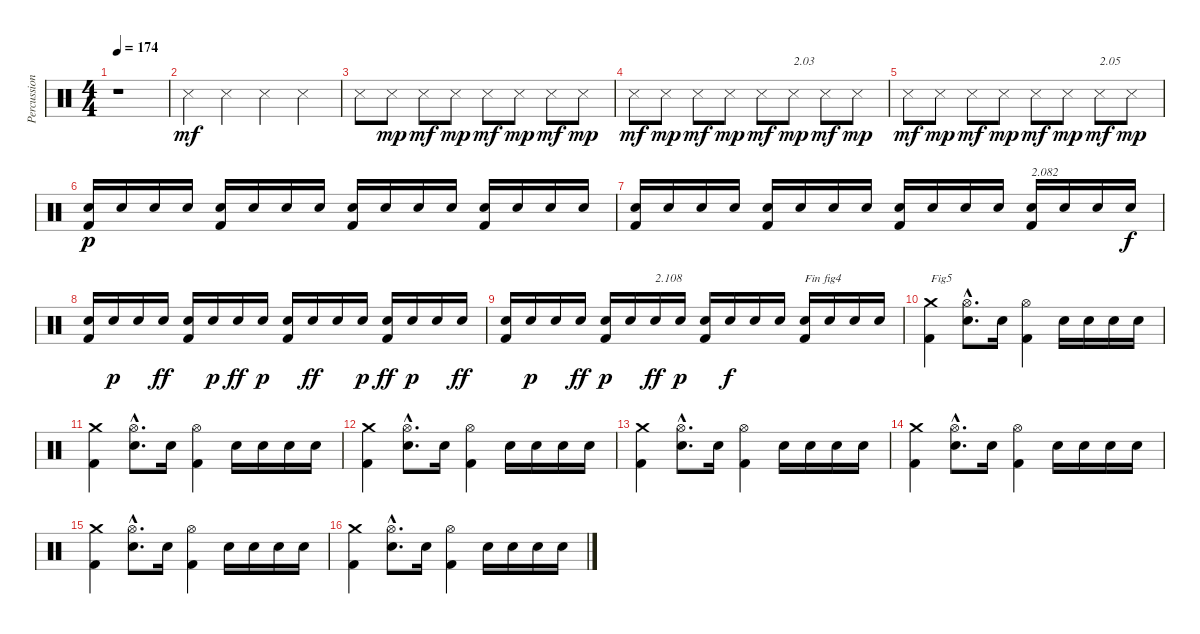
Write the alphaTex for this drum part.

\track ("Percussions" "Percussion") {instrument percussion}
\staff {score}
\articulation defaults
\ts (4 4)
\tempo 174
\clef neutral
\ks c
r.1{dy f} |
"Snare (side stick) 3".4{dy mf} "Snare (side stick) 3".4 "Snare (side stick) 3".4 "Snare (side stick) 3".4 |
"Snare (side stick) 3".8 "Snare (side stick) 3".8{dy mp} "Snare (side stick) 3".8{dy mf} "Snare (side stick) 3".8{dy mp} "Snare (side stick) 3".8{dy mf} "Snare (side stick) 3".8{dy mp} "Snare (side stick) 3".8{dy mf} "Snare (side stick) 3".8{dy mp} |
"Snare (side stick) 3".8{dy mf} "Snare (side stick) 3".8{dy mp} "Snare (side stick) 3".8{dy mf} "Snare (side stick) 3".8{dy mp} "Snare (side stick) 3".8{dy mf} "Snare (side stick) 3".8{txt "2.03" dy mp} "Snare (side stick) 3".8{dy mf} "Snare (side stick) 3".8{dy mp} |
"Snare (side stick) 3".8{dy mf} "Snare (side stick) 3".8{dy mp} "Snare (side stick) 3".8{dy mf} "Snare (side stick) 3".8{dy mp} "Snare (side stick) 3".8{dy mf} "Snare (side stick) 3".8{dy mp} "Snare (side stick) 3".8{txt "2.05" dy mf} "Snare (side stick) 3".8{dy mp} |
("Kick (hit) 2" "Electric Snare (hit)").16{dy p} "Electric Snare (hit)".16 "Electric Snare (hit)".16 "Electric Snare (hit)".16 ("Kick (hit) 2" "Electric Snare (hit)").16 "Electric Snare (hit)".16 "Electric Snare (hit)".16 "Electric Snare (hit)".16 ("Kick (hit) 2" "Electric Snare (hit)").16 "Electric Snare (hit)".16 "Electric Snare (hit)".16 "Electric Snare (hit)".16 ("Kick (hit) 2" "Electric Snare (hit)").16 "Electric Snare (hit)".16 "Electric Snare (hit)".16 "Electric Snare (hit)".16 |
("Kick (hit) 2" "Electric Snare (hit)").16 "Electric Snare (hit)".16 "Electric Snare (hit)".16 "Electric Snare (hit)".16 ("Kick (hit) 2" "Electric Snare (hit)").16 "Electric Snare (hit)".16 "Electric Snare (hit)".16 "Electric Snare (hit)".16 ("Kick (hit) 2" "Electric Snare (hit)").16 "Electric Snare (hit)".16 "Electric Snare (hit)".16 "Electric Snare (hit)".16 ("Kick (hit) 2" "Electric Snare (hit)").16{txt "2.082"} "Electric Snare (hit)".16 "Electric Snare (hit)".16 "Electric Snare (hit)".16{dy f} |
("Kick (hit) 2" "Electric Snare (hit)").16 "Electric Snare (hit)".16{dy p} "Electric Snare (hit)".16 "Electric Snare (hit)".16{dy ff} ("Kick (hit) 2" "Electric Snare (hit)").16 "Electric Snare (hit)".16{dy p} "Electric Snare (hit)".16{dy ff} "Electric Snare (hit)".16{dy p} ("Kick (hit) 2" "Electric Snare (hit)").16 "Electric Snare (hit)".16{dy ff} "Electric Snare (hit)".16 "Electric Snare (hit)".16{dy p} ("Kick (hit) 2" "Electric Snare (hit)").16{dy ff} "Electric Snare (hit)".16{dy p} "Electric Snare (hit)".16 "Electric Snare (hit)".16{dy ff} |
("Kick (hit) 2" "Electric Snare (hit)").16 "Electric Snare (hit)".16{dy p} "Electric Snare (hit)".16 "Electric Snare (hit)".16{dy ff} ("Kick (hit) 2" "Electric Snare (hit)").16{dy p} "Electric Snare (hit)".16 "Electric Snare (hit)".16{txt "2.108" dy ff} "Electric Snare (hit)".16{dy p} ("Kick (hit) 2" "Electric Snare (hit)").16 "Electric Snare (hit)".16{dy f} "Electric Snare (hit)".16 "Electric Snare (hit)".16 ("Kick (hit) 2" "Electric Snare (hit)").16{txt "Fin fig4"} "Electric Snare (hit)".16 "Electric Snare (hit)".16 "Electric Snare (hit)".16 |
("Kick (hit) 2" "Crash medium (hit)").4{txt "Fig5"} ("Electric Snare (hit)"{hac} "Hi-Hat (open)"{hac}).8{d} "Electric Snare (hit)".16 ("Kick (hit) 2" "Hi-Hat (open)").4 "Electric Snare (hit)".16 "Electric Snare (hit)".16 "Electric Snare (hit)".16 "Electric Snare (hit)".16 |
("Kick (hit) 2" "Crash medium (hit)").4 ("Electric Snare (hit)"{hac} "Hi-Hat (open)"{hac}).8{d} "Electric Snare (hit)".16 ("Kick (hit) 2" "Hi-Hat (open)").4 "Electric Snare (hit)".16 "Electric Snare (hit)".16 "Electric Snare (hit)".16 "Electric Snare (hit)".16 |
("Kick (hit) 2" "Crash medium (hit)").4 ("Electric Snare (hit)"{hac} "Hi-Hat (open)"{hac}).8{d} "Electric Snare (hit)".16 ("Kick (hit) 2" "Hi-Hat (open)").4 "Electric Snare (hit)".16 "Electric Snare (hit)".16 "Electric Snare (hit)".16 "Electric Snare (hit)".16 |
("Kick (hit) 2" "Crash medium (hit)").4 ("Electric Snare (hit)"{hac} "Hi-Hat (open)"{hac}).8{d} "Electric Snare (hit)".16 ("Kick (hit) 2" "Hi-Hat (open)").4 "Electric Snare (hit)".16 "Electric Snare (hit)".16 "Electric Snare (hit)".16 "Electric Snare (hit)".16 |
("Kick (hit) 2" "Crash medium (hit)").4 ("Electric Snare (hit)"{hac} "Hi-Hat (open)"{hac}).8{d} "Electric Snare (hit)".16 ("Kick (hit) 2" "Hi-Hat (open)").4 "Electric Snare (hit)".16 "Electric Snare (hit)".16 "Electric Snare (hit)".16 "Electric Snare (hit)".16 |
("Kick (hit) 2" "Crash medium (hit)").4 ("Electric Snare (hit)"{hac} "Hi-Hat (open)"{hac}).8{d} "Electric Snare (hit)".16 ("Kick (hit) 2" "Hi-Hat (open)").4 "Electric Snare (hit)".16 "Electric Snare (hit)".16 "Electric Snare (hit)".16 "Electric Snare (hit)".16 |
("Kick (hit) 2" "Crash medium (hit)").4 ("Electric Snare (hit)"{hac} "Hi-Hat (open)"{hac}).8{d} "Electric Snare (hit)".16 ("Kick (hit) 2" "Hi-Hat (open)").4 "Electric Snare (hit)".16 "Electric Snare (hit)".16 "Electric Snare (hit)".16 "Electric Snare (hit)".16
